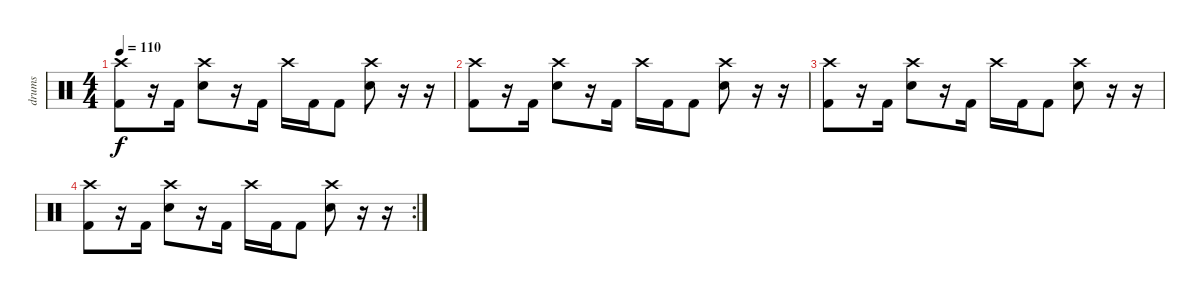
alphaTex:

\track ("drums" "drums") {instrument percussion}
\staff {score}
\articulation defaults
\ts (4 4)
\tempo 110
\clef neutral
\ks c
("Crash high (hit)" "Kick (hit) 2").8{dy f} r.16 "Kick (hit) 2".16 ("Crash high (hit)" "Electric Snare (hit)").8 r.16 "Kick (hit) 2".16 "Crash high (hit)".16 "Kick (hit) 2".16 "Kick (hit) 2".8 ("Crash high (hit)" "Electric Snare (hit)").8 r.16 r.16 |
("Crash high (hit)" "Kick (hit) 2").8 r.16 "Kick (hit) 2".16 ("Crash high (hit)" "Electric Snare (hit)").8 r.16 "Kick (hit) 2".16 "Crash high (hit)".16 "Kick (hit) 2".16 "Kick (hit) 2".8 ("Crash high (hit)" "Electric Snare (hit)").8 r.16 r.16 |
("Crash high (hit)" "Kick (hit) 2").8 r.16 "Kick (hit) 2".16 ("Crash high (hit)" "Electric Snare (hit)").8 r.16 "Kick (hit) 2".16 "Crash high (hit)".16 "Kick (hit) 2".16 "Kick (hit) 2".8 ("Crash high (hit)" "Electric Snare (hit)").8 r.16 r.16 |
\rc 2
("Crash high (hit)" "Kick (hit) 2").8 r.16 "Kick (hit) 2".16 ("Crash high (hit)" "Electric Snare (hit)").8 r.16 "Kick (hit) 2".16 "Crash high (hit)".16 "Kick (hit) 2".16 "Kick (hit) 2".8 ("Crash high (hit)" "Electric Snare (hit)").8 r.16 r.16
